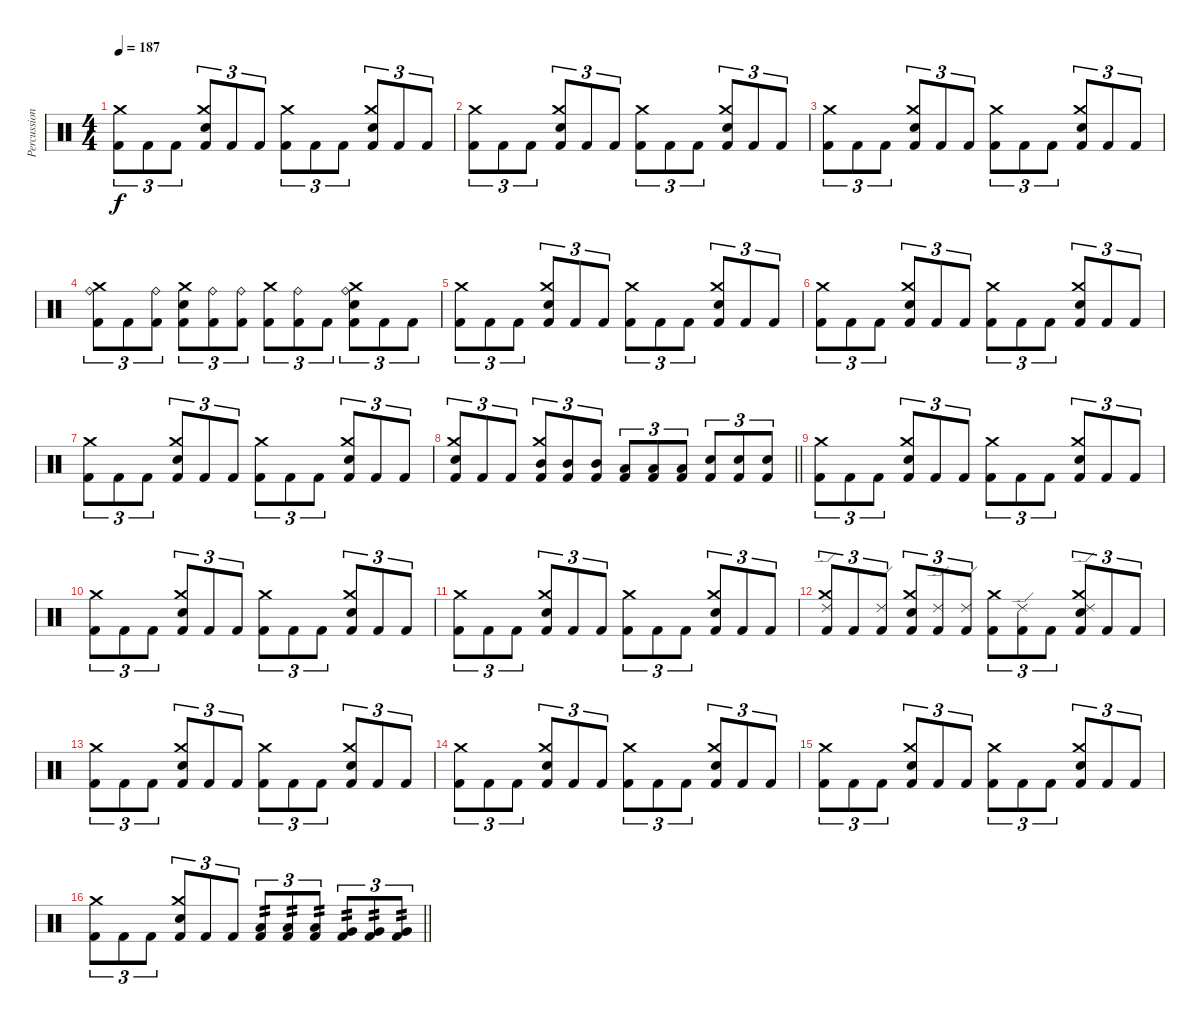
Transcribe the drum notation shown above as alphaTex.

\track ("Percussion" "Percussion") {instrument percussion}
\staff {score}
\articulation defaults
\ts (4 4)
\section ("" "")
\tempo 187
\clef neutral
\ks c
("Kick (hit) 2" "Crash medium (hit)").8{tu (3 2) dy f} "Kick (hit) 2".8{tu (3 2)} "Kick (hit) 2".8{tu (3 2)} ("Kick (hit) 2" "Snare (hit) 2" "Crash medium (hit)").8{tu (3 2)} "Kick (hit) 2".8{tu (3 2)} "Kick (hit) 2".8{tu (3 2)} ("Kick (hit) 2" "Crash medium (hit)").8{tu (3 2)} "Kick (hit) 2".8{tu (3 2)} "Kick (hit) 2".8{tu (3 2)} ("Kick (hit) 2" "Snare (hit) 2" "Crash medium (hit)").8{tu (3 2)} "Kick (hit) 2".8{tu (3 2)} "Kick (hit) 2".8{tu (3 2)} |
("Kick (hit) 2" "Crash medium (hit)").8{tu (3 2)} "Kick (hit) 2".8{tu (3 2)} "Kick (hit) 2".8{tu (3 2)} ("Kick (hit) 2" "Snare (hit) 2" "Crash medium (hit)").8{tu (3 2)} "Kick (hit) 2".8{tu (3 2)} "Kick (hit) 2".8{tu (3 2)} ("Kick (hit) 2" "Crash medium (hit)").8{tu (3 2)} "Kick (hit) 2".8{tu (3 2)} "Kick (hit) 2".8{tu (3 2)} ("Kick (hit) 2" "Snare (hit) 2" "Crash medium (hit)").8{tu (3 2)} "Kick (hit) 2".8{tu (3 2)} "Kick (hit) 2".8{tu (3 2)} |
("Kick (hit) 2" "Crash medium (hit)").8{tu (3 2)} "Kick (hit) 2".8{tu (3 2)} "Kick (hit) 2".8{tu (3 2)} ("Kick (hit) 2" "Snare (hit) 2" "Crash medium (hit)").8{tu (3 2)} "Kick (hit) 2".8{tu (3 2)} "Kick (hit) 2".8{tu (3 2)} ("Kick (hit) 2" "Crash medium (hit)").8{tu (3 2)} "Kick (hit) 2".8{tu (3 2)} "Kick (hit) 2".8{tu (3 2)} ("Kick (hit) 2" "Snare (hit) 2" "Crash medium (hit)").8{tu (3 2)} "Kick (hit) 2".8{tu (3 2)} "Kick (hit) 2".8{tu (3 2)} |
("Kick (hit) 2" "Crash medium (hit)" "Ride (bell)").8{tu (3 2)} "Kick (hit) 2".8{tu (3 2)} ("Kick (hit) 2" "Ride (bell)").8{tu (3 2)} ("Kick (hit) 2" "Snare (hit) 2" "Crash medium (hit)").8{tu (3 2)} ("Kick (hit) 2" "Ride (bell)").8{tu (3 2)} ("Kick (hit) 2" "Ride (bell)").8{tu (3 2)} ("Kick (hit) 2" "Crash medium (hit)").8{tu (3 2)} ("Kick (hit) 2" "Ride (bell)").8{tu (3 2)} "Kick (hit) 2".8{tu (3 2)} ("Kick (hit) 2" "Snare (hit) 2" "Crash medium (hit)" "Ride (bell)").8{tu (3 2)} "Kick (hit) 2".8{tu (3 2)} "Kick (hit) 2".8{tu (3 2)} |
("Kick (hit) 2" "Crash medium (hit)").8{tu (3 2)} "Kick (hit) 2".8{tu (3 2)} "Kick (hit) 2".8{tu (3 2)} ("Kick (hit) 2" "Snare (hit) 2" "Crash medium (hit)").8{tu (3 2)} "Kick (hit) 2".8{tu (3 2)} "Kick (hit) 2".8{tu (3 2)} ("Kick (hit) 2" "Crash medium (hit)").8{tu (3 2)} "Kick (hit) 2".8{tu (3 2)} "Kick (hit) 2".8{tu (3 2)} ("Kick (hit) 2" "Snare (hit) 2" "Crash medium (hit)").8{tu (3 2)} "Kick (hit) 2".8{tu (3 2)} "Kick (hit) 2".8{tu (3 2)} |
("Kick (hit) 2" "Crash medium (hit)").8{tu (3 2)} "Kick (hit) 2".8{tu (3 2)} "Kick (hit) 2".8{tu (3 2)} ("Kick (hit) 2" "Snare (hit) 2" "Crash medium (hit)").8{tu (3 2)} "Kick (hit) 2".8{tu (3 2)} "Kick (hit) 2".8{tu (3 2)} ("Kick (hit) 2" "Crash medium (hit)").8{tu (3 2)} "Kick (hit) 2".8{tu (3 2)} "Kick (hit) 2".8{tu (3 2)} ("Kick (hit) 2" "Snare (hit) 2" "Crash medium (hit)").8{tu (3 2)} "Kick (hit) 2".8{tu (3 2)} "Kick (hit) 2".8{tu (3 2)} |
("Kick (hit) 2" "Crash medium (hit)").8{tu (3 2)} "Kick (hit) 2".8{tu (3 2)} "Kick (hit) 2".8{tu (3 2)} ("Kick (hit) 2" "Snare (hit) 2" "Crash medium (hit)").8{tu (3 2)} "Kick (hit) 2".8{tu (3 2)} "Kick (hit) 2".8{tu (3 2)} ("Kick (hit) 2" "Crash medium (hit)").8{tu (3 2)} "Kick (hit) 2".8{tu (3 2)} "Kick (hit) 2".8{tu (3 2)} ("Kick (hit) 2" "Snare (hit) 2" "Crash medium (hit)").8{tu (3 2)} "Kick (hit) 2".8{tu (3 2)} "Kick (hit) 2".8{tu (3 2)} |
\barLineRight lightlight
("Kick (hit) 2" "Snare (hit) 2" "Crash medium (hit)").8{tu (3 2)} "Kick (hit) 2".8{tu (3 2)} "Kick (hit) 2".8{tu (3 2)} ("Kick (hit) 2" "Mid Tom (hit)" "Crash medium (hit)").8{tu (3 2)} ("Kick (hit) 2" "Mid Tom (hit)").8{tu (3 2)} ("Kick (hit) 2" "Mid Tom (hit)").8{tu (3 2)} ("Kick (hit) 2" "Low Tom (hit)").8{tu (3 2)} ("Kick (hit) 2" "Low Tom (hit)").8{tu (3 2)} ("Kick (hit) 2" "Low Tom (hit)").8{tu (3 2)} ("Kick (hit) 2" "Snare (hit) 2").8{tu (3 2)} ("Kick (hit) 2" "Snare (hit) 2").8{tu (3 2)} ("Kick (hit) 2" "Snare (hit) 2").8{tu (3 2)} |
\section ("" "")
("Kick (hit) 2" "Crash medium (hit)").8{tu (3 2)} "Kick (hit) 2".8{tu (3 2)} "Kick (hit) 2".8{tu (3 2)} ("Kick (hit) 2" "Snare (hit) 2" "Crash medium (hit)").8{tu (3 2)} "Kick (hit) 2".8{tu (3 2)} "Kick (hit) 2".8{tu (3 2)} ("Kick (hit) 2" "Crash medium (hit)").8{tu (3 2)} "Kick (hit) 2".8{tu (3 2)} "Kick (hit) 2".8{tu (3 2)} ("Kick (hit) 2" "Snare (hit) 2" "Crash medium (hit)").8{tu (3 2)} "Kick (hit) 2".8{tu (3 2)} "Kick (hit) 2".8{tu (3 2)} |
("Kick (hit) 2" "Crash medium (hit)").8{tu (3 2)} "Kick (hit) 2".8{tu (3 2)} "Kick (hit) 2".8{tu (3 2)} ("Kick (hit) 2" "Snare (hit) 2" "Crash medium (hit)").8{tu (3 2)} "Kick (hit) 2".8{tu (3 2)} "Kick (hit) 2".8{tu (3 2)} ("Kick (hit) 2" "Crash medium (hit)").8{tu (3 2)} "Kick (hit) 2".8{tu (3 2)} "Kick (hit) 2".8{tu (3 2)} ("Kick (hit) 2" "Snare (hit) 2" "Crash medium (hit)").8{tu (3 2)} "Kick (hit) 2".8{tu (3 2)} "Kick (hit) 2".8{tu (3 2)} |
("Kick (hit) 2" "Crash medium (hit)").8{tu (3 2)} "Kick (hit) 2".8{tu (3 2)} "Kick (hit) 2".8{tu (3 2)} ("Kick (hit) 2" "Snare (hit) 2" "Crash medium (hit)").8{tu (3 2)} "Kick (hit) 2".8{tu (3 2)} "Kick (hit) 2".8{tu (3 2)} ("Kick (hit) 2" "Crash medium (hit)").8{tu (3 2)} "Kick (hit) 2".8{tu (3 2)} "Kick (hit) 2".8{tu (3 2)} ("Kick (hit) 2" "Snare (hit) 2" "Crash medium (hit)").8{tu (3 2)} "Kick (hit) 2".8{tu (3 2)} "Kick (hit) 2".8{tu (3 2)} |
("Kick (hit) 2" "Crash medium (hit)" "Ride (edge) 2").8{tu (3 2)} "Kick (hit) 2".8{tu (3 2)} ("Kick (hit) 2" "Ride (edge) 2").8{tu (3 2)} ("Kick (hit) 2" "Snare (hit) 2" "Crash medium (hit)").8{tu (3 2)} ("Kick (hit) 2" "Ride (edge) 2").8{tu (3 2)} ("Kick (hit) 2" "Ride (edge) 2").8{tu (3 2)} ("Kick (hit) 2" "Crash medium (hit)").8{tu (3 2)} ("Kick (hit) 2" "Ride (edge) 2").8{tu (3 2)} "Kick (hit) 2".8{tu (3 2)} ("Kick (hit) 2" "Snare (hit) 2" "Crash medium (hit)" "Ride (edge) 2").8{tu (3 2)} "Kick (hit) 2".8{tu (3 2)} "Kick (hit) 2".8{tu (3 2)} |
("Kick (hit) 2" "Crash medium (hit)").8{tu (3 2)} "Kick (hit) 2".8{tu (3 2)} "Kick (hit) 2".8{tu (3 2)} ("Kick (hit) 2" "Snare (hit) 2" "Crash medium (hit)").8{tu (3 2)} "Kick (hit) 2".8{tu (3 2)} "Kick (hit) 2".8{tu (3 2)} ("Kick (hit) 2" "Crash medium (hit)").8{tu (3 2)} "Kick (hit) 2".8{tu (3 2)} "Kick (hit) 2".8{tu (3 2)} ("Kick (hit) 2" "Snare (hit) 2" "Crash medium (hit)").8{tu (3 2)} "Kick (hit) 2".8{tu (3 2)} "Kick (hit) 2".8{tu (3 2)} |
("Kick (hit) 2" "Crash medium (hit)").8{tu (3 2)} "Kick (hit) 2".8{tu (3 2)} "Kick (hit) 2".8{tu (3 2)} ("Kick (hit) 2" "Snare (hit) 2" "Crash medium (hit)").8{tu (3 2)} "Kick (hit) 2".8{tu (3 2)} "Kick (hit) 2".8{tu (3 2)} ("Kick (hit) 2" "Crash medium (hit)").8{tu (3 2)} "Kick (hit) 2".8{tu (3 2)} "Kick (hit) 2".8{tu (3 2)} ("Kick (hit) 2" "Snare (hit) 2" "Crash medium (hit)").8{tu (3 2)} "Kick (hit) 2".8{tu (3 2)} "Kick (hit) 2".8{tu (3 2)} |
("Kick (hit) 2" "Crash medium (hit)").8{tu (3 2)} "Kick (hit) 2".8{tu (3 2)} "Kick (hit) 2".8{tu (3 2)} ("Kick (hit) 2" "Snare (hit) 2" "Crash medium (hit)").8{tu (3 2)} "Kick (hit) 2".8{tu (3 2)} "Kick (hit) 2".8{tu (3 2)} ("Kick (hit) 2" "Crash medium (hit)").8{tu (3 2)} "Kick (hit) 2".8{tu (3 2)} "Kick (hit) 2".8{tu (3 2)} ("Kick (hit) 2" "Snare (hit) 2" "Crash medium (hit)").8{tu (3 2)} "Kick (hit) 2".8{tu (3 2)} "Kick (hit) 2".8{tu (3 2)} |
\barLineRight lightlight
("Kick (hit) 2" "Crash medium (hit)").8{tu (3 2)} "Kick (hit) 2".8{tu (3 2)} "Kick (hit) 2".8{tu (3 2)} ("Kick (hit) 2" "Snare (hit) 2" "Crash medium (hit)").8{tu (3 2)} "Kick (hit) 2".8{tu (3 2)} "Kick (hit) 2".8{tu (3 2)} ("Kick (hit) 2" "Low Tom (hit)").8{tu (3 2) tp 2} ("Kick (hit) 2" "Low Tom (hit)").8{tu (3 2) tp 2} ("Kick (hit) 2" "Low Tom (hit)").8{tu (3 2) tp 2} ("Kick (hit) 2" "Very Low Tom (hit)").8{tu (3 2) tp 2} ("Kick (hit) 2" "Very Low Tom (hit)").8{tu (3 2) tp 2} ("Kick (hit) 2" "Very Low Tom (hit)").8{tu (3 2) tp 2}
